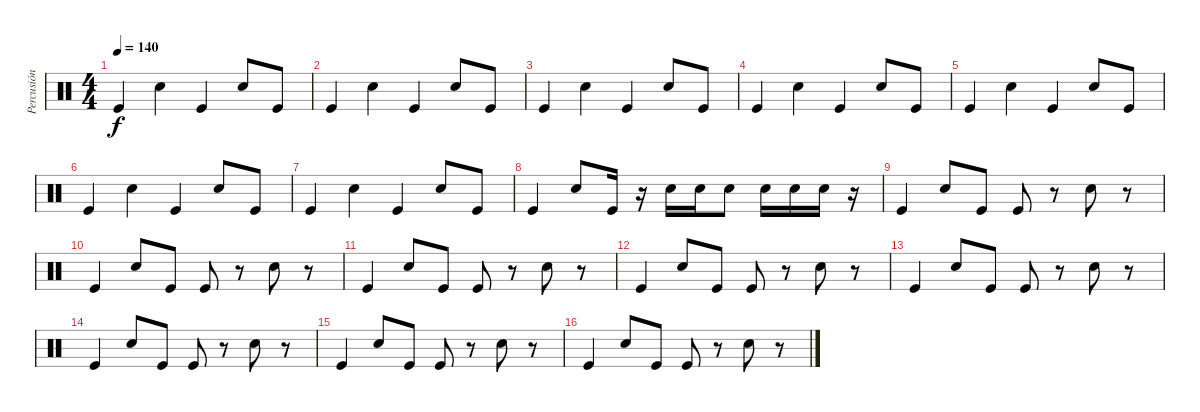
\track ("Percusión" "Percusión") {instrument percussion}
\staff {score}
\articulation defaults
\ts (4 4)
\tempo 140
\clef neutral
\ks c "Kick (hit)".4{dy f} "Snare (hit) 2".4 "Kick (hit)".4 "Snare (hit) 2".8 "Kick (hit)".8
|
"Kick (hit)".4 "Snare (hit) 2".4 "Kick (hit)".4 "Snare (hit) 2".8 "Kick (hit)".8 |
"Kick (hit)".4 "Snare (hit) 2".4 "Kick (hit)".4 "Snare (hit) 2".8 "Kick (hit)".8 |
"Kick (hit)".4 "Snare (hit) 2".4 "Kick (hit)".4 "Snare (hit) 2".8 "Kick (hit)".8 |
"Kick (hit)".4 "Snare (hit) 2".4 "Kick (hit)".4 "Snare (hit) 2".8 "Kick (hit)".8 |
"Kick (hit)".4 "Snare (hit) 2".4 "Kick (hit)".4 "Snare (hit) 2".8 "Kick (hit)".8 |
"Kick (hit)".4 "Snare (hit) 2".4 "Kick (hit)".4 "Snare (hit) 2".8 "Kick (hit)".8 |
"Kick (hit)".4 "Snare (hit) 2".8 "Kick (hit)".16 r.16 "Snare (hit) 2".16 "Snare (hit) 2".16 "Snare (hit) 2".8 "Snare (hit) 2".16 "Snare (hit) 2".16 "Snare (hit) 2".16 r.16 |
"Kick (hit)".4 "Snare (hit) 2".8 "Kick (hit)".8 "Kick (hit)".8 r.8 "Snare (hit) 2".8 r.8 |
"Kick (hit)".4 "Snare (hit) 2".8 "Kick (hit)".8 "Kick (hit)".8 r.8 "Snare (hit) 2".8 r.8 |
"Kick (hit)".4 "Snare (hit) 2".8 "Kick (hit)".8 "Kick (hit)".8 r.8 "Snare (hit) 2".8 r.8 |
"Kick (hit)".4 "Snare (hit) 2".8 "Kick (hit)".8 "Kick (hit)".8 r.8 "Snare (hit) 2".8 r.8 |
"Kick (hit)".4 "Snare (hit) 2".8 "Kick (hit)".8 "Kick (hit)".8 r.8 "Snare (hit) 2".8 r.8 |
"Kick (hit)".4 "Snare (hit) 2".8 "Kick (hit)".8 "Kick (hit)".8 r.8 "Snare (hit) 2".8 r.8 |
"Kick (hit)".4 "Snare (hit) 2".8 "Kick (hit)".8 "Kick (hit)".8 r.8 "Snare (hit) 2".8 r.8 |
"Kick (hit)".4 "Snare (hit) 2".8 "Kick (hit)".8 "Kick (hit)".8 r.8 "Snare (hit) 2".8 r.8
